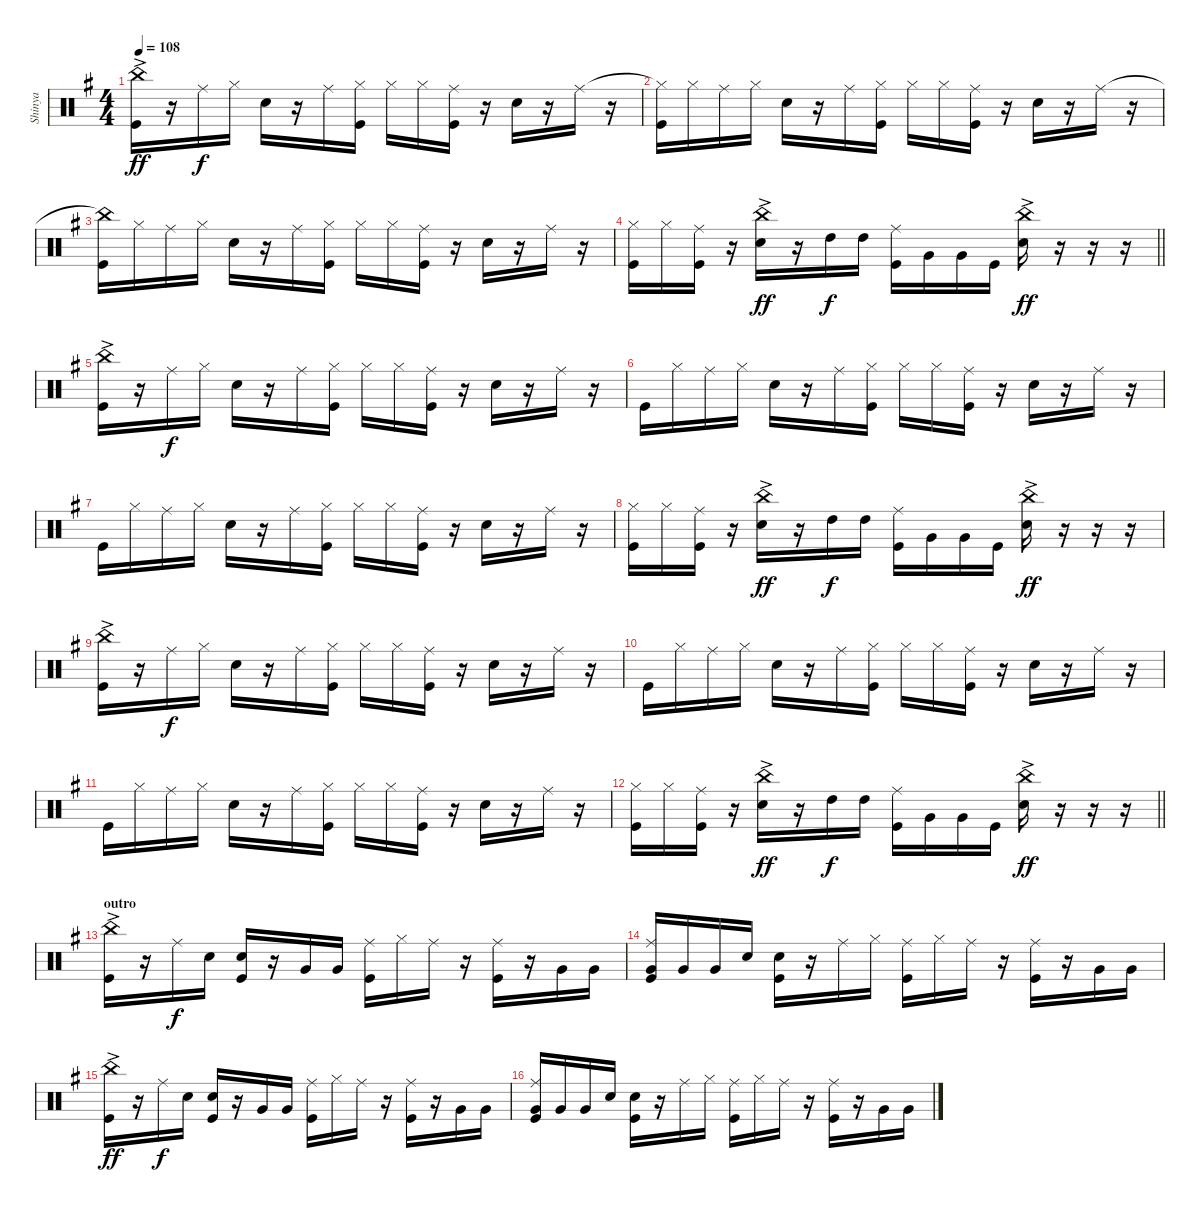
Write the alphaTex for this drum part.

\track ("Shinya" "Shinya") {instrument percussion}
\staff {score}
\articulation defaults
\ts (4 4)
\tempo 108
\clef neutral
\ks g
("China (hit)"{ac} "Kick (hit)").16{dy ff} r.16 "Ride (middle)".16{dy f} "Hi-Hat (closed)".16 "Electric Snare (hit)".16 r.16 "Ride (middle)".16 ("Hi-Hat (closed)" "Kick (hit)").16 "Hi-Hat (closed)".16 "Hi-Hat (closed)".16 ("Ride (middle)" "Kick (hit)").16 r.16 "Electric Snare (hit)".16 r.16 "Ride (middle)".16 r.16 |
("Hi-Hat (closed)"{t} "Kick (hit)").16 "Hi-Hat (closed)".16 "Ride (middle)".16 "Hi-Hat (closed)".16 "Electric Snare (hit)".16 r.16 "Ride (middle)".16 ("Hi-Hat (closed)" "Kick (hit)").16 "Hi-Hat (closed)".16 "Hi-Hat (closed)".16 ("Ride (middle)" "Kick (hit)").16 r.16 "Electric Snare (hit)".16 r.16 "Ride (middle)".16 r.16 |
("China (hit)"{t} "Kick (hit)").16 "Hi-Hat (closed)".16 "Ride (middle)".16 "Hi-Hat (closed)".16 "Electric Snare (hit)".16 r.16 "Ride (middle)".16 ("Hi-Hat (closed)" "Kick (hit)").16 "Hi-Hat (closed)".16 "Hi-Hat (closed)".16 ("Ride (middle)" "Kick (hit)").16 r.16 "Electric Snare (hit)".16 r.16 "Ride (middle)".16 r.16 |
\barLineRight lightlight
("Hi-Hat (closed)" "Kick (hit)").16 "Hi-Hat (closed)".16 ("Ride (middle)" "Kick (hit)").16 r.16 ("China (hit)"{ac} "Electric Snare (hit)").16{dy ff} r.16 "High Tom (hit)".16{dy f} "High Tom (hit)".16 ("Ride (middle)" "Kick (hit)").16 "Very Low Tom (hit)".16 "Very Low Tom (hit)".16 "Kick (hit)".16 ("China (hit)"{ac} "Electric Snare (hit)").16{dy ff} r.16 r.16 r.16 |
\section ("" "")
("China (hit)"{ac} "Kick (hit)").16 r.16 "Ride (middle)".16{dy f} "Hi-Hat (closed)".16 "Electric Snare (hit)".16 r.16 "Ride (middle)".16 ("Hi-Hat (closed)" "Kick (hit)").16 "Hi-Hat (closed)".16 "Hi-Hat (closed)".16 ("Ride (middle)" "Kick (hit)").16 r.16 "Electric Snare (hit)".16 r.16 "Ride (middle)".16 r.16 |
"Kick (hit)".16 "Hi-Hat (closed)".16 "Ride (middle)".16 "Hi-Hat (closed)".16 "Electric Snare (hit)".16 r.16 "Ride (middle)".16 ("Hi-Hat (closed)" "Kick (hit)").16 "Hi-Hat (closed)".16 "Hi-Hat (closed)".16 ("Ride (middle)" "Kick (hit)").16 r.16 "Electric Snare (hit)".16 r.16 "Ride (middle)".16 r.16 |
"Kick (hit)".16 "Hi-Hat (closed)".16 "Ride (middle)".16 "Hi-Hat (closed)".16 "Electric Snare (hit)".16 r.16 "Ride (middle)".16 ("Hi-Hat (closed)" "Kick (hit)").16 "Hi-Hat (closed)".16 "Hi-Hat (closed)".16 ("Ride (middle)" "Kick (hit)").16 r.16 "Electric Snare (hit)".16 r.16 "Ride (middle)".16 r.16 |
("Hi-Hat (closed)" "Kick (hit)").16 "Hi-Hat (closed)".16 ("Ride (middle)" "Kick (hit)").16 r.16 ("China (hit)"{ac} "Electric Snare (hit)").16{dy ff} r.16 "High Tom (hit)".16{dy f} "High Tom (hit)".16 ("Ride (middle)" "Kick (hit)").16 "Very Low Tom (hit)".16 "Very Low Tom (hit)".16 "Kick (hit)".16 ("China (hit)"{ac} "Electric Snare (hit)").16{dy ff} r.16 r.16 r.16 |
("China (hit)"{ac} "Kick (hit)").16 r.16 "Ride (middle)".16{dy f} "Hi-Hat (closed)".16 "Electric Snare (hit)".16 r.16 "Ride (middle)".16 ("Hi-Hat (closed)" "Kick (hit)").16 "Hi-Hat (closed)".16 "Hi-Hat (closed)".16 ("Ride (middle)" "Kick (hit)").16 r.16 "Electric Snare (hit)".16 r.16 "Ride (middle)".16 r.16 |
"Kick (hit)".16 "Hi-Hat (closed)".16 "Ride (middle)".16 "Hi-Hat (closed)".16 "Electric Snare (hit)".16 r.16 "Ride (middle)".16 ("Hi-Hat (closed)" "Kick (hit)").16 "Hi-Hat (closed)".16 "Hi-Hat (closed)".16 ("Ride (middle)" "Kick (hit)").16 r.16 "Electric Snare (hit)".16 r.16 "Ride (middle)".16 r.16 |
"Kick (hit)".16 "Hi-Hat (closed)".16 "Ride (middle)".16 "Hi-Hat (closed)".16 "Electric Snare (hit)".16 r.16 "Ride (middle)".16 ("Hi-Hat (closed)" "Kick (hit)").16 "Hi-Hat (closed)".16 "Hi-Hat (closed)".16 ("Ride (middle)" "Kick (hit)").16 r.16 "Electric Snare (hit)".16 r.16 "Ride (middle)".16 r.16 |
\barLineRight lightlight
("Hi-Hat (closed)" "Kick (hit)").16 "Hi-Hat (closed)".16 ("Ride (middle)" "Kick (hit)").16 r.16 ("China (hit)"{ac} "Electric Snare (hit)").16{dy ff} r.16 "High Tom (hit)".16{dy f} "High Tom (hit)".16 ("Ride (middle)" "Kick (hit)").16 "Very Low Tom (hit)".16 "Very Low Tom (hit)".16 "Kick (hit)".16 ("China (hit)"{ac} "Electric Snare (hit)").16{dy ff} r.16 r.16 r.16 |
\section ("" "outro")
("China (hit)"{ac} "Kick (hit)").16 r.16 "Ride (middle)".16{dy f} "Electric Snare (hit)".16 ("Electric Snare (hit)" "Kick (hit)").16 r.16 "Very Low Tom (hit)".16 "Very Low Tom (hit)".16 ("Ride (middle)" "Kick (hit)").16 "Hi-Hat (closed)".16 "Ride (middle)".16 r.16 ("Ride (middle)" "Kick (hit)").16 r.16 "Very Low Tom (hit)".16 "Very Low Tom (hit)".16 |
("Ride (middle)" "Very Low Tom (hit)" "Kick (hit)").16 "Very Low Tom (hit)".16 "Very Low Tom (hit)".16 "Electric Snare (hit)".16 ("Electric Snare (hit)" "Kick (hit)").16 r.16 "Ride (middle)".16 "Hi-Hat (closed)".16 ("Ride (middle)" "Kick (hit)").16 "Hi-Hat (closed)".16 "Ride (middle)".16 r.16 ("Ride (middle)" "Kick (hit)").16 r.16 "Very Low Tom (hit)".16 "Very Low Tom (hit)".16 |
("China (hit)"{ac} "Kick (hit)").16{dy ff} r.16 "Ride (middle)".16{dy f} "Electric Snare (hit)".16 ("Electric Snare (hit)" "Kick (hit)").16 r.16 "Very Low Tom (hit)".16 "Very Low Tom (hit)".16 ("Ride (middle)" "Kick (hit)").16 "Hi-Hat (closed)".16 "Ride (middle)".16 r.16 ("Ride (middle)" "Kick (hit)").16 r.16 "Very Low Tom (hit)".16 "Very Low Tom (hit)".16 |
("Ride (middle)" "Very Low Tom (hit)" "Kick (hit)").16 "Very Low Tom (hit)".16 "Very Low Tom (hit)".16 "Electric Snare (hit)".16 ("Electric Snare (hit)" "Kick (hit)").16 r.16 "Ride (middle)".16 "Hi-Hat (closed)".16 ("Ride (middle)" "Kick (hit)").16 "Hi-Hat (closed)".16 "Ride (middle)".16 r.16 ("Ride (middle)" "Kick (hit)").16 r.16 "Very Low Tom (hit)".16 "Very Low Tom (hit)".16
